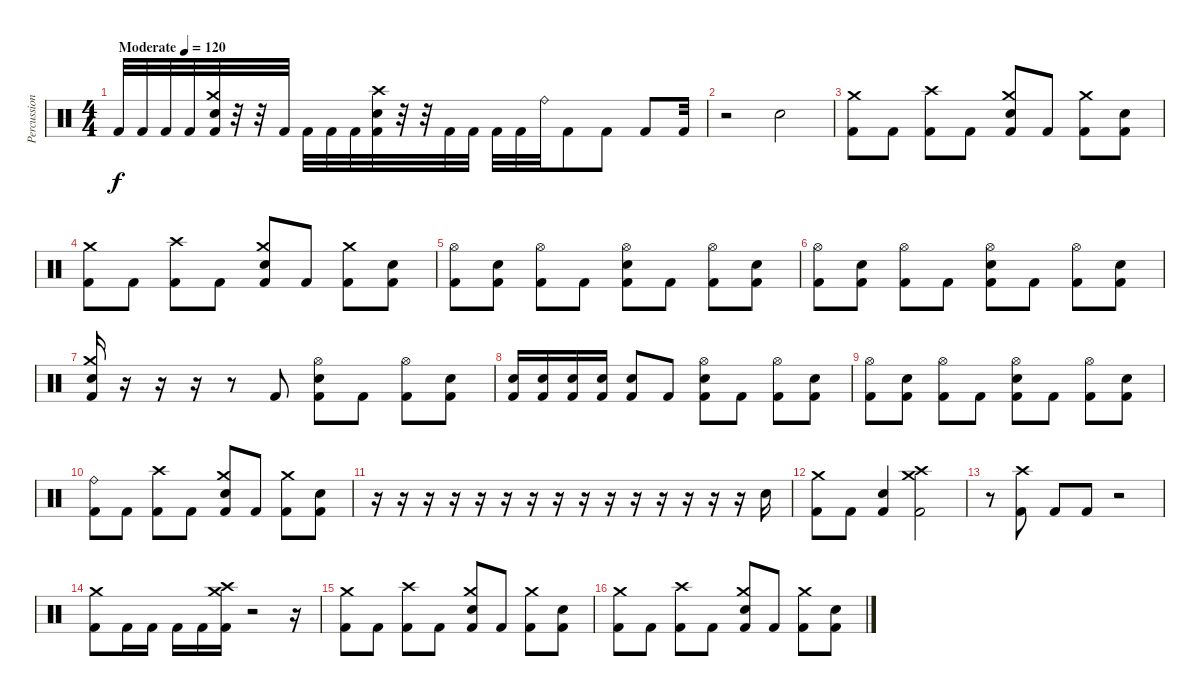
\track ("Percussion" "Percussion") {instrument percussion}
\staff {score}
\articulation defaults
\ts (4 4)
\tempo (120 "Moderate")
\tempo 135
\tempo (120 "Moderate")
\clef neutral
\ks c "Kick (hit) 2".32{dy f} "Kick (hit) 2".32 "Kick (hit) 2".32 "Kick (hit) 2".32
("Crash medium (hit)" "Electric Snare (hit)" "Kick (hit) 2").32 r.32 r.32 "Kick (hit) 2".32 "Kick (hit) 2".32 "Kick (hit) 2".32 "Kick (hit) 2".32 ("Crash high (hit)" "Electric Snare (hit)" "Kick (hit) 2").32 r.32 r.32 "Kick (hit) 2".32 "Kick (hit) 2".32 "Kick (hit) 2".32 "Kick (hit) 2".32 "Ride (bell)".32 "Kick (hit) 2".8 "Kick (hit) 2".8 "Kick (hit) 2".8 "Kick (hit) 2".32 |
r.2 "Electric Snare (hit)".2 |
("Crash medium (hit)" "Kick (hit) 2").8 "Kick (hit) 2".8 ("Crash high (hit)" "Kick (hit) 2").8 "Kick (hit) 2".8 ("Crash medium (hit)" "Electric Snare (hit)" "Kick (hit) 2").8 "Kick (hit) 2".8 ("Crash medium (hit)" "Kick (hit) 2").8 ("Electric Snare (hit)" "Kick (hit) 2").8 |
("Crash medium (hit)" "Kick (hit) 2").8 "Kick (hit) 2".8 ("Crash high (hit)" "Kick (hit) 2").8 "Kick (hit) 2".8 ("Crash medium (hit)" "Electric Snare (hit)" "Kick (hit) 2").8 "Kick (hit) 2".8 ("Crash medium (hit)" "Kick (hit) 2").8 ("Electric Snare (hit)" "Kick (hit) 2").8 |
("Hi-Hat (open)" "Kick (hit) 2").8 ("Electric Snare (hit)" "Kick (hit) 2").8 ("Hi-Hat (open)" "Kick (hit) 2").8 "Kick (hit) 2".8 ("Hi-Hat (open)" "Electric Snare (hit)" "Kick (hit) 2").8 "Kick (hit) 2".8 ("Hi-Hat (open)" "Kick (hit) 2").8 ("Electric Snare (hit)" "Kick (hit) 2").8 |
("Hi-Hat (open)" "Kick (hit) 2").8 ("Electric Snare (hit)" "Kick (hit) 2").8 ("Hi-Hat (open)" "Kick (hit) 2").8 "Kick (hit) 2".8 ("Hi-Hat (open)" "Electric Snare (hit)" "Kick (hit) 2").8 "Kick (hit) 2".8 ("Hi-Hat (open)" "Kick (hit) 2").8 ("Electric Snare (hit)" "Kick (hit) 2").8 |
("Crash medium (hit)" "Electric Snare (hit)" "Kick (hit) 2").16 r.16 r.16 r.16 r.8 "Kick (hit) 2".8 ("Hi-Hat (open)" "Electric Snare (hit)" "Kick (hit) 2").8 "Kick (hit) 2".8 ("Hi-Hat (open)" "Kick (hit) 2").8 ("Electric Snare (hit)" "Kick (hit) 2").8 |
("Electric Snare (hit)" "Kick (hit) 2").16 ("Electric Snare (hit)" "Kick (hit) 2").16 ("Electric Snare (hit)" "Kick (hit) 2").16 ("Electric Snare (hit)" "Kick (hit) 2").16 ("Electric Snare (hit)" "Kick (hit) 2").8 "Kick (hit) 2".8 ("Hi-Hat (open)" "Electric Snare (hit)" "Kick (hit) 2").8 "Kick (hit) 2".8 ("Hi-Hat (open)" "Kick (hit) 2").8 ("Electric Snare (hit)" "Kick (hit) 2").8 |
("Hi-Hat (open)" "Kick (hit) 2").8 ("Electric Snare (hit)" "Kick (hit) 2").8 ("Hi-Hat (open)" "Kick (hit) 2").8 "Kick (hit) 2".8 ("Hi-Hat (open)" "Electric Snare (hit)" "Kick (hit) 2").8 "Kick (hit) 2".8 ("Hi-Hat (open)" "Kick (hit) 2").8 ("Electric Snare (hit)" "Kick (hit) 2").8 |
("Ride (bell)" "Kick (hit) 2").8 "Kick (hit) 2".8 ("Crash high (hit)" "Kick (hit) 2").8 "Kick (hit) 2".8 ("Crash medium (hit)" "Electric Snare (hit)" "Kick (hit) 2").8 "Kick (hit) 2".8 ("Crash medium (hit)" "Kick (hit) 2").8 ("Electric Snare (hit)" "Kick (hit) 2").8 |
r.16 r.16 r.16 r.16 r.16 r.16 r.16 r.16 r.16 r.16 r.16 r.16 r.16 r.16 r.16 "Electric Snare (hit)".16 |
("Crash medium (hit)" "Kick (hit) 2").8 "Kick (hit) 2".8 ("Electric Snare (hit)" "Kick (hit) 2").4 ("Crash medium (hit)" "Crash high (hit)" "Kick (hit) 2").2 |
r.8 ("Crash high (hit)" "Kick (hit) 2").8 "Kick (hit) 2".8 "Kick (hit) 2".8 r.2 |
("Crash medium (hit)" "Kick (hit) 2").8 "Kick (hit) 2".16 "Kick (hit) 2".16 "Kick (hit) 2".16 "Kick (hit) 2".16 ("Crash medium (hit)" "Crash high (hit)" "Kick (hit) 2").16 r.2 r.16 |
("Crash medium (hit)" "Kick (hit) 2").8 "Kick (hit) 2".8 ("Crash high (hit)" "Kick (hit) 2").8 "Kick (hit) 2".8 ("Crash medium (hit)" "Electric Snare (hit)" "Kick (hit) 2").8 "Kick (hit) 2".8 ("Crash medium (hit)" "Kick (hit) 2").8 ("Electric Snare (hit)" "Kick (hit) 2").8 |
("Crash medium (hit)" "Kick (hit) 2").8 "Kick (hit) 2".8 ("Crash high (hit)" "Kick (hit) 2").8 "Kick (hit) 2".8 ("Crash medium (hit)" "Electric Snare (hit)" "Kick (hit) 2").8 "Kick (hit) 2".8 ("Crash medium (hit)" "Kick (hit) 2").8 ("Electric Snare (hit)" "Kick (hit) 2").8
